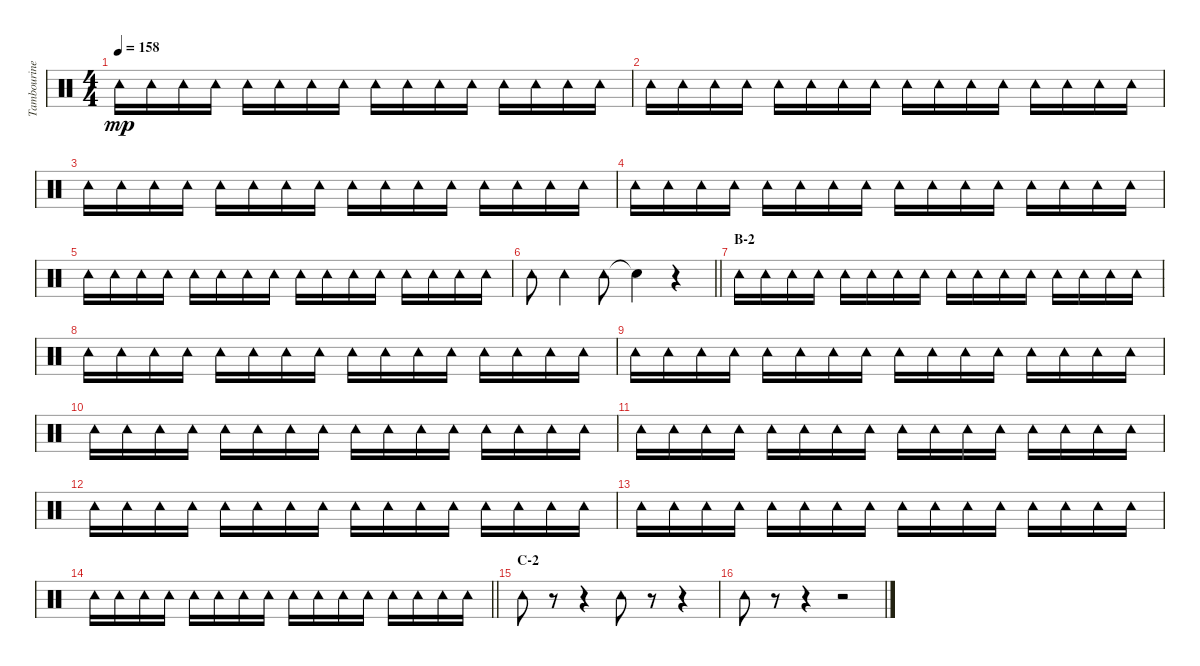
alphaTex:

\track ("Tambourine" "Tambourine") {instrument percussion}
\staff {score}
\articulation defaults
\ts (4 4)
\tempo 158
\clef neutral
\ks c "Tambourine (hit)".16{dy mp} "Tambourine (hit)".16 "Tambourine (hit)".16 "Tambourine (hit)".16 "Tambourine (hit)".16 "Tambourine (hit)".16 "Tambourine (hit)".16 "Tambourine (hit)".16 "Tambourine (hit)".16 "Tambourine (hit)".16 "Tambourine (hit)".16 "Tambourine (hit)".16 "Tambourine (hit)".16 "Tambourine (hit)".16 "Tambourine (hit)".16 "Tambourine (hit)".16
|
"Tambourine (hit)".16 "Tambourine (hit)".16 "Tambourine (hit)".16 "Tambourine (hit)".16 "Tambourine (hit)".16 "Tambourine (hit)".16 "Tambourine (hit)".16 "Tambourine (hit)".16 "Tambourine (hit)".16 "Tambourine (hit)".16 "Tambourine (hit)".16 "Tambourine (hit)".16 "Tambourine (hit)".16 "Tambourine (hit)".16 "Tambourine (hit)".16 "Tambourine (hit)".16 |
"Tambourine (hit)".16 "Tambourine (hit)".16 "Tambourine (hit)".16 "Tambourine (hit)".16 "Tambourine (hit)".16 "Tambourine (hit)".16 "Tambourine (hit)".16 "Tambourine (hit)".16 "Tambourine (hit)".16 "Tambourine (hit)".16 "Tambourine (hit)".16 "Tambourine (hit)".16 "Tambourine (hit)".16 "Tambourine (hit)".16 "Tambourine (hit)".16 "Tambourine (hit)".16 |
"Tambourine (hit)".16 "Tambourine (hit)".16 "Tambourine (hit)".16 "Tambourine (hit)".16 "Tambourine (hit)".16 "Tambourine (hit)".16 "Tambourine (hit)".16 "Tambourine (hit)".16 "Tambourine (hit)".16 "Tambourine (hit)".16 "Tambourine (hit)".16 "Tambourine (hit)".16 "Tambourine (hit)".16 "Tambourine (hit)".16 "Tambourine (hit)".16 "Tambourine (hit)".16 |
"Tambourine (hit)".16 "Tambourine (hit)".16 "Tambourine (hit)".16 "Tambourine (hit)".16 "Tambourine (hit)".16 "Tambourine (hit)".16 "Tambourine (hit)".16 "Tambourine (hit)".16 "Tambourine (hit)".16 "Tambourine (hit)".16 "Tambourine (hit)".16 "Tambourine (hit)".16 "Tambourine (hit)".16 "Tambourine (hit)".16 "Tambourine (hit)".16 "Tambourine (hit)".16 |
\barLineRight lightlight "Tambourine (hit)".8 "Tambourine (hit)".4 "Tambourine (hit)".8 "Snare (hit)"{t}.4
r.4 |
\section ("" "B-2")
"Tambourine (hit)".16 "Tambourine (hit)".16 "Tambourine (hit)".16 "Tambourine (hit)".16 "Tambourine (hit)".16 "Tambourine (hit)".16 "Tambourine (hit)".16 "Tambourine (hit)".16 "Tambourine (hit)".16 "Tambourine (hit)".16 "Tambourine (hit)".16 "Tambourine (hit)".16 "Tambourine (hit)".16 "Tambourine (hit)".16 "Tambourine (hit)".16 "Tambourine (hit)".16 |
"Tambourine (hit)".16 "Tambourine (hit)".16 "Tambourine (hit)".16 "Tambourine (hit)".16 "Tambourine (hit)".16 "Tambourine (hit)".16 "Tambourine (hit)".16 "Tambourine (hit)".16 "Tambourine (hit)".16 "Tambourine (hit)".16 "Tambourine (hit)".16 "Tambourine (hit)".16 "Tambourine (hit)".16 "Tambourine (hit)".16 "Tambourine (hit)".16 "Tambourine (hit)".16 |
"Tambourine (hit)".16 "Tambourine (hit)".16 "Tambourine (hit)".16 "Tambourine (hit)".16 "Tambourine (hit)".16 "Tambourine (hit)".16 "Tambourine (hit)".16 "Tambourine (hit)".16 "Tambourine (hit)".16 "Tambourine (hit)".16 "Tambourine (hit)".16 "Tambourine (hit)".16 "Tambourine (hit)".16 "Tambourine (hit)".16 "Tambourine (hit)".16 "Tambourine (hit)".16 |
"Tambourine (hit)".16 "Tambourine (hit)".16 "Tambourine (hit)".16 "Tambourine (hit)".16 "Tambourine (hit)".16 "Tambourine (hit)".16 "Tambourine (hit)".16 "Tambourine (hit)".16 "Tambourine (hit)".16 "Tambourine (hit)".16 "Tambourine (hit)".16 "Tambourine (hit)".16 "Tambourine (hit)".16 "Tambourine (hit)".16 "Tambourine (hit)".16 "Tambourine (hit)".16 |
"Tambourine (hit)".16 "Tambourine (hit)".16 "Tambourine (hit)".16 "Tambourine (hit)".16 "Tambourine (hit)".16 "Tambourine (hit)".16 "Tambourine (hit)".16 "Tambourine (hit)".16 "Tambourine (hit)".16 "Tambourine (hit)".16 "Tambourine (hit)".16 "Tambourine (hit)".16 "Tambourine (hit)".16 "Tambourine (hit)".16 "Tambourine (hit)".16 "Tambourine (hit)".16 |
"Tambourine (hit)".16 "Tambourine (hit)".16 "Tambourine (hit)".16 "Tambourine (hit)".16 "Tambourine (hit)".16 "Tambourine (hit)".16 "Tambourine (hit)".16 "Tambourine (hit)".16 "Tambourine (hit)".16 "Tambourine (hit)".16 "Tambourine (hit)".16 "Tambourine (hit)".16 "Tambourine (hit)".16 "Tambourine (hit)".16 "Tambourine (hit)".16 "Tambourine (hit)".16 |
"Tambourine (hit)".16 "Tambourine (hit)".16 "Tambourine (hit)".16 "Tambourine (hit)".16 "Tambourine (hit)".16 "Tambourine (hit)".16 "Tambourine (hit)".16 "Tambourine (hit)".16 "Tambourine (hit)".16 "Tambourine (hit)".16 "Tambourine (hit)".16 "Tambourine (hit)".16 "Tambourine (hit)".16 "Tambourine (hit)".16 "Tambourine (hit)".16 "Tambourine (hit)".16 |
\barLineRight lightlight "Tambourine (hit)".16 "Tambourine (hit)".16 "Tambourine (hit)".16 "Tambourine (hit)".16 "Tambourine (hit)".16 "Tambourine (hit)".16 "Tambourine (hit)".16 "Tambourine (hit)".16 "Tambourine (hit)".16 "Tambourine (hit)".16 "Tambourine (hit)".16 "Tambourine (hit)".16 "Tambourine (hit)".16 "Tambourine (hit)".16 "Tambourine (hit)".16 "Tambourine (hit)".16
|
\section ("" "C-2")
"Tambourine (hit)".8 r.8 r.4 "Tambourine (hit)".8 r.8 r.4 |
"Tambourine (hit)".8 r.8 r.4 r.2
